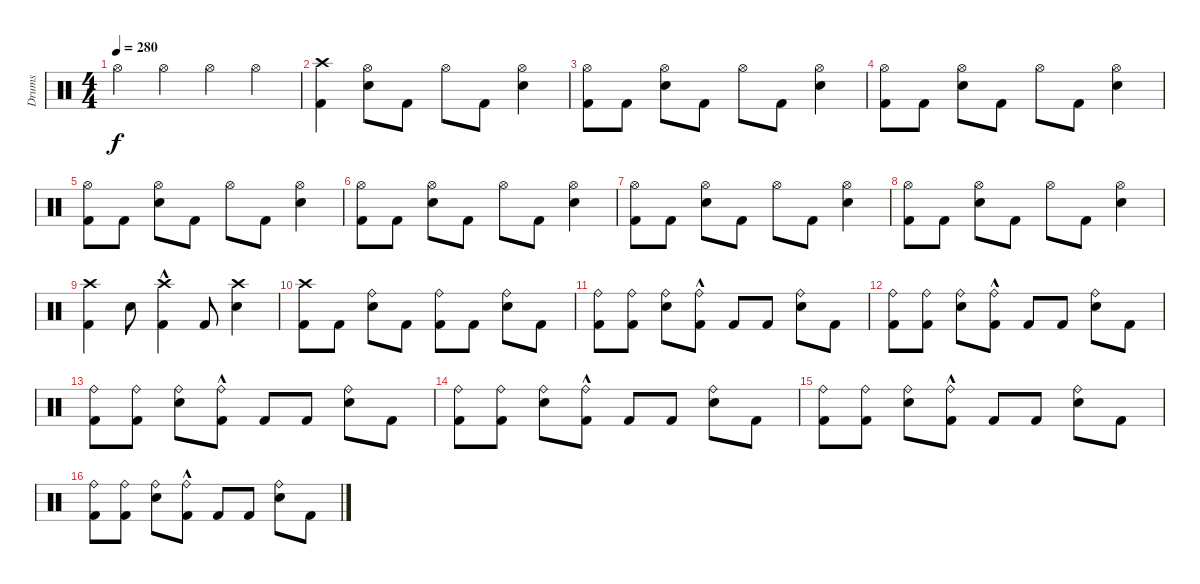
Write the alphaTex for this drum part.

\track ("Drums" "Drums") {instrument percussion}
\staff {score}
\articulation defaults
\ts (4 4)
\tempo 280
\clef neutral
\ks c "Hi-Hat (open)".4{dy f} "Hi-Hat (open)".4 "Hi-Hat (open)".4 "Hi-Hat (open)".4
|
("Crash high (hit)" "Kick (hit) 2").4 ("Snare (hit) 2" "Hi-Hat (open)").8 "Kick (hit) 2".8 "Hi-Hat (open)".8 "Kick (hit) 2".8 ("Hi-Hat (open)" "Snare (hit) 2").4 |
("Kick (hit) 2" "Hi-Hat (open)").8 "Kick (hit) 2".8 ("Snare (hit) 2" "Hi-Hat (open)").8 "Kick (hit) 2".8 "Hi-Hat (open)".8 "Kick (hit) 2".8 ("Hi-Hat (open)" "Snare (hit) 2").4 |
("Kick (hit) 2" "Hi-Hat (open)").8 "Kick (hit) 2".8 ("Snare (hit) 2" "Hi-Hat (open)").8 "Kick (hit) 2".8 "Hi-Hat (open)".8 "Kick (hit) 2".8 ("Hi-Hat (open)" "Snare (hit) 2").4 |
("Kick (hit) 2" "Hi-Hat (open)").8 "Kick (hit) 2".8 ("Snare (hit) 2" "Hi-Hat (open)").8 "Kick (hit) 2".8 "Hi-Hat (open)".8 "Kick (hit) 2".8 ("Hi-Hat (open)" "Snare (hit) 2").4 |
("Kick (hit) 2" "Hi-Hat (open)").8 "Kick (hit) 2".8 ("Snare (hit) 2" "Hi-Hat (open)").8 "Kick (hit) 2".8 "Hi-Hat (open)".8 "Kick (hit) 2".8 ("Hi-Hat (open)" "Snare (hit) 2").4 |
("Kick (hit) 2" "Hi-Hat (open)").8 "Kick (hit) 2".8 ("Snare (hit) 2" "Hi-Hat (open)").8 "Kick (hit) 2".8 "Hi-Hat (open)".8 "Kick (hit) 2".8 ("Hi-Hat (open)" "Snare (hit) 2").4 |
("Kick (hit) 2" "Hi-Hat (open)").8 "Kick (hit) 2".8 ("Snare (hit) 2" "Hi-Hat (open)").8 "Kick (hit) 2".8 "Hi-Hat (open)".8 "Kick (hit) 2".8 ("Hi-Hat (open)" "Snare (hit) 2").4 |
("Kick (hit) 2" "Crash high (hit)").4 "Snare (hit) 2".8 ("Crash high (hit)"{hac} "Kick (hit) 2").4 "Kick (hit) 2".8 ("Crash high (hit)" "Snare (hit) 2").4 |
("Crash high (hit)" "Kick (hit) 2").8 "Kick (hit) 2".8 ("Ride (bell)" "Snare (hit) 2").8 "Kick (hit) 2".8 ("Ride (bell)" "Kick (hit) 2").8 "Kick (hit) 2".8 ("Ride (bell)" "Snare (hit) 2").8 "Kick (hit) 2".8 |
("Kick (hit) 2" "Ride (bell)").8 ("Kick (hit) 2" "Ride (bell)").8 ("Ride (bell)" "Snare (hit) 2").8 ("Kick (hit) 2" "Ride (bell)"{hac}).8 "Kick (hit) 2".8 "Kick (hit) 2".8 ("Ride (bell)" "Snare (hit) 2").8 "Kick (hit) 2".8 |
("Kick (hit) 2" "Ride (bell)").8 ("Ride (bell)" "Kick (hit) 2").8 ("Snare (hit) 2" "Ride (bell)").8 ("Ride (bell)"{hac} "Kick (hit) 2").8 "Kick (hit) 2".8 "Kick (hit) 2".8 ("Ride (bell)" "Snare (hit) 2").8 "Kick (hit) 2".8 |
("Kick (hit) 2" "Ride (bell)").8 ("Ride (bell)" "Kick (hit) 2").8 ("Snare (hit) 2" "Ride (bell)").8 ("Ride (bell)"{hac} "Kick (hit) 2").8 "Kick (hit) 2".8 "Kick (hit) 2".8 ("Ride (bell)" "Snare (hit) 2").8 "Kick (hit) 2".8 |
("Kick (hit) 2" "Ride (bell)").8 ("Ride (bell)" "Kick (hit) 2").8 ("Snare (hit) 2" "Ride (bell)").8 ("Ride (bell)"{hac} "Kick (hit) 2").8 "Kick (hit) 2".8 "Kick (hit) 2".8 ("Ride (bell)" "Snare (hit) 2").8 "Kick (hit) 2".8 |
("Kick (hit) 2" "Ride (bell)").8 ("Ride (bell)" "Kick (hit) 2").8 ("Snare (hit) 2" "Ride (bell)").8 ("Ride (bell)"{hac} "Kick (hit) 2").8 "Kick (hit) 2".8 "Kick (hit) 2".8 ("Ride (bell)" "Snare (hit) 2").8 "Kick (hit) 2".8 |
("Kick (hit) 2" "Ride (bell)").8 ("Ride (bell)" "Kick (hit) 2").8 ("Snare (hit) 2" "Ride (bell)").8 ("Ride (bell)"{hac} "Kick (hit) 2").8 "Kick (hit) 2".8 "Kick (hit) 2".8 ("Ride (bell)" "Snare (hit) 2").8 "Kick (hit) 2".8
